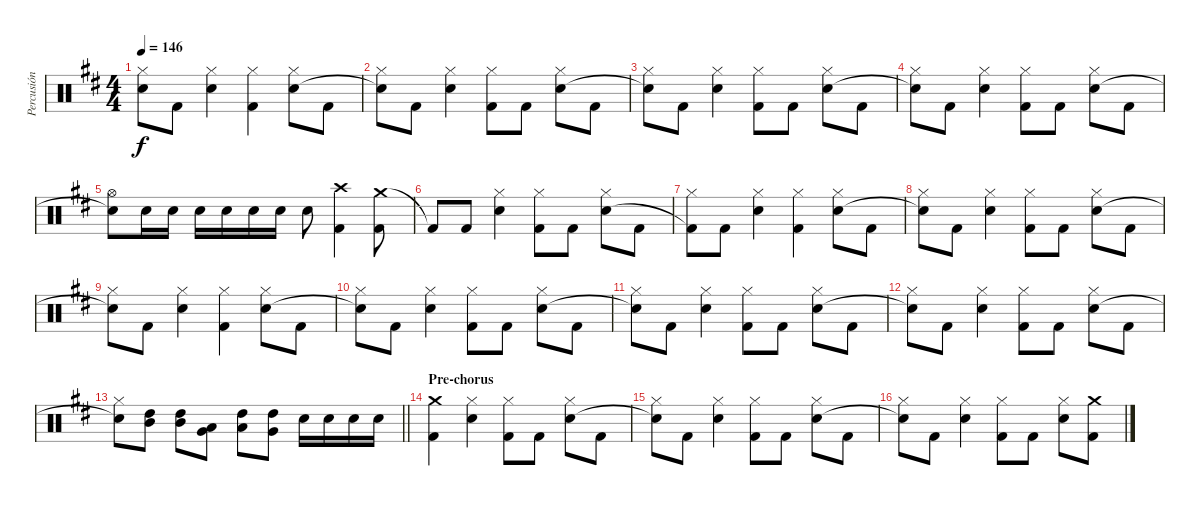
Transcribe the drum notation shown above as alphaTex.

\track ("Percusión" "Percusión") {instrument percussion}
\staff {score}
\articulation defaults
\ts (4 4)
\tempo 146
\clef neutral
\ks d
("Hi-Hat (closed)" "Snare (hit)"{t}).8{dy f} "Kick (hit) 2".8 ("Hi-Hat (closed)" "Snare (hit) 2").4 ("Hi-Hat (closed)" "Kick (hit) 2").4 ("Hi-Hat (closed)" "Snare (hit) 2").8 "Kick (hit) 2".8 |
("Hi-Hat (closed)" "Snare (hit)"{t}).8 "Kick (hit) 2".8 ("Hi-Hat (closed)" "Snare (hit) 2").4 ("Hi-Hat (closed)" "Kick (hit) 2").8 "Kick (hit) 2".8 ("Hi-Hat (closed)" "Snare (hit) 2").8 "Kick (hit) 2".8 |
("Hi-Hat (closed)" "Snare (hit)"{t}).8 "Kick (hit) 2".8 ("Hi-Hat (closed)" "Snare (hit) 2").4 ("Hi-Hat (closed)" "Kick (hit) 2").8 "Kick (hit) 2".8 ("Hi-Hat (closed)" "Snare (hit) 2").8 "Kick (hit) 2".8 |
("Hi-Hat (closed)" "Snare (hit)"{t}).8 "Kick (hit) 2".8 ("Hi-Hat (closed)" "Snare (hit) 2").4 ("Hi-Hat (closed)" "Kick (hit) 2").8 "Kick (hit) 2".8 ("Hi-Hat (closed)" "Snare (hit) 2").8 "Kick (hit) 2".8 |
("Hi-Hat (open)" "Snare (hit)"{t}).8 "Snare (hit) 2".16 "Snare (hit) 2".16 "Snare (hit) 2".16 "Snare (hit) 2".16 "Snare (hit) 2".16 "Snare (hit) 2".16 "Snare (hit) 2".8 ("Crash high (hit)" "Kick (hit) 2").4 ("Crash medium (hit)" "Kick (hit) 2").8 |
"Kick (hit) 2"{t}.8 "Kick (hit) 2".8 ("Hi-Hat (closed)" "Snare (hit) 2").4 ("Hi-Hat (closed)" "Kick (hit) 2").8 "Kick (hit) 2".8 ("Hi-Hat (closed)" "Snare (hit) 2").8 "Kick (hit) 2".8 |
("Hi-Hat (closed)" "Kick (hit) 2"{t}).8 "Kick (hit) 2".8 ("Hi-Hat (closed)" "Snare (hit) 2").4 ("Hi-Hat (closed)" "Kick (hit) 2").4 ("Hi-Hat (closed)" "Snare (hit) 2").8 "Kick (hit) 2".8 |
("Hi-Hat (closed)" "Snare (hit)"{t}).8 "Kick (hit) 2".8 ("Hi-Hat (closed)" "Snare (hit) 2").4 ("Hi-Hat (closed)" "Kick (hit) 2").8 "Kick (hit) 2".8 ("Hi-Hat (closed)" "Snare (hit) 2").8 "Kick (hit) 2".8 |
("Hi-Hat (closed)" "Snare (hit)"{t}).8 "Kick (hit) 2".8 ("Hi-Hat (closed)" "Snare (hit) 2").4 ("Hi-Hat (closed)" "Kick (hit) 2").4 ("Hi-Hat (closed)" "Snare (hit) 2").8 "Kick (hit) 2".8 |
("Hi-Hat (closed)" "Snare (hit)"{t}).8 "Kick (hit) 2".8 ("Hi-Hat (closed)" "Snare (hit) 2").4 ("Hi-Hat (closed)" "Kick (hit) 2").8 "Kick (hit) 2".8 ("Hi-Hat (closed)" "Snare (hit) 2").8 "Kick (hit) 2".8 |
("Hi-Hat (closed)" "Snare (hit)"{t}).8 "Kick (hit) 2".8 ("Hi-Hat (closed)" "Snare (hit) 2").4 ("Hi-Hat (closed)" "Kick (hit) 2").8 "Kick (hit) 2".8 ("Hi-Hat (closed)" "Snare (hit) 2").8 "Kick (hit) 2".8 |
("Hi-Hat (closed)" "Snare (hit)"{t}).8 "Kick (hit) 2".8 ("Hi-Hat (closed)" "Snare (hit) 2").4 ("Hi-Hat (closed)" "Kick (hit) 2").8 "Kick (hit) 2".8 ("Hi-Hat (closed)" "Snare (hit) 2").8 "Kick (hit) 2".8 |
\barLineRight lightlight
("Hi-Hat (closed)" "Snare (hit)"{t}).8 ("Mid Tom (hit)" "High Tom (hit)").8 ("High Tom (hit)" "Mid Tom (hit)").8 ("Very Low Tom (hit)" "Low Tom (hit)").8 ("Low Floor Tom (hit)" "High Tom (hit)").8 ("High Tom (hit)" "Very Low Tom (hit)").8 "Snare (hit) 2".16 "Snare (hit) 2".16 "Snare (hit) 2".16 "Snare (hit) 2".16 |
\section ("" "Pre-chorus")
("Crash medium (hit)" "Kick (hit) 2").4 ("Hi-Hat (closed)" "Snare (hit) 2").4 ("Hi-Hat (closed)" "Kick (hit) 2").8 "Kick (hit) 2".8 ("Hi-Hat (closed)" "Snare (hit) 2").8 "Kick (hit) 2".8 |
("Hi-Hat (closed)" "Snare (hit)"{t}).8 "Kick (hit) 2".8 ("Hi-Hat (closed)" "Snare (hit) 2").4 ("Hi-Hat (closed)" "Kick (hit) 2").8 "Kick (hit) 2".8 ("Hi-Hat (closed)" "Snare (hit) 2").8 "Kick (hit) 2".8 |
("Hi-Hat (closed)" "Snare (hit)"{t}).8 "Kick (hit) 2".8 ("Hi-Hat (closed)" "Snare (hit) 2").4 ("Hi-Hat (closed)" "Kick (hit) 2").8 "Kick (hit) 2".8 ("Hi-Hat (closed)" "Snare (hit) 2").8 ("Crash medium (hit)" "Kick (hit) 2").8
